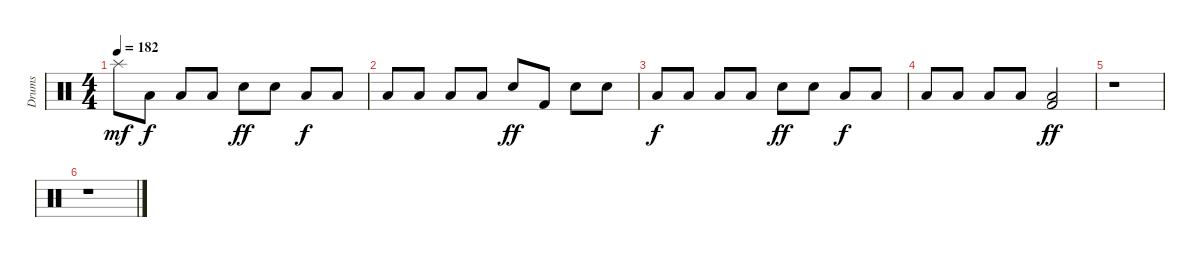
\track ("Drums" "Drums") {instrument percussion}
\staff {score}
\articulation defaults
\ts (4 4)
\tempo 182
\clef neutral
\ks c "Splash (hit)".8{dy mf} "Low Floor Tom (hit)".8{dy f} "Low Floor Tom (hit)".8 "Low Floor Tom (hit)".8 "Snare (hit) 2".8{dy ff} "Snare (hit) 2".8 "Low Floor Tom (hit)".8{dy f} "Low Floor Tom (hit)".8
|
"Low Floor Tom (hit)".8 "Low Floor Tom (hit)".8 "Low Floor Tom (hit)".8 "Low Floor Tom (hit)".8 "Snare (hit) 2".8{dy ff} "Kick (hit) 2".8 "Snare (hit) 2".8 "Snare (hit) 2".8 |
"Low Floor Tom (hit)".8{dy f} "Low Floor Tom (hit)".8 "Low Floor Tom (hit)".8 "Low Floor Tom (hit)".8 "Snare (hit) 2".8{dy ff} "Snare (hit) 2".8 "Low Floor Tom (hit)".8{dy f} "Low Floor Tom (hit)".8 |
"Low Floor Tom (hit)".8 "Low Floor Tom (hit)".8 "Low Floor Tom (hit)".8 "Low Floor Tom (hit)".8 ("Low Floor Tom (hit)" "Kick (hit) 2").2{dy ff} |
r.1 |
r.1
